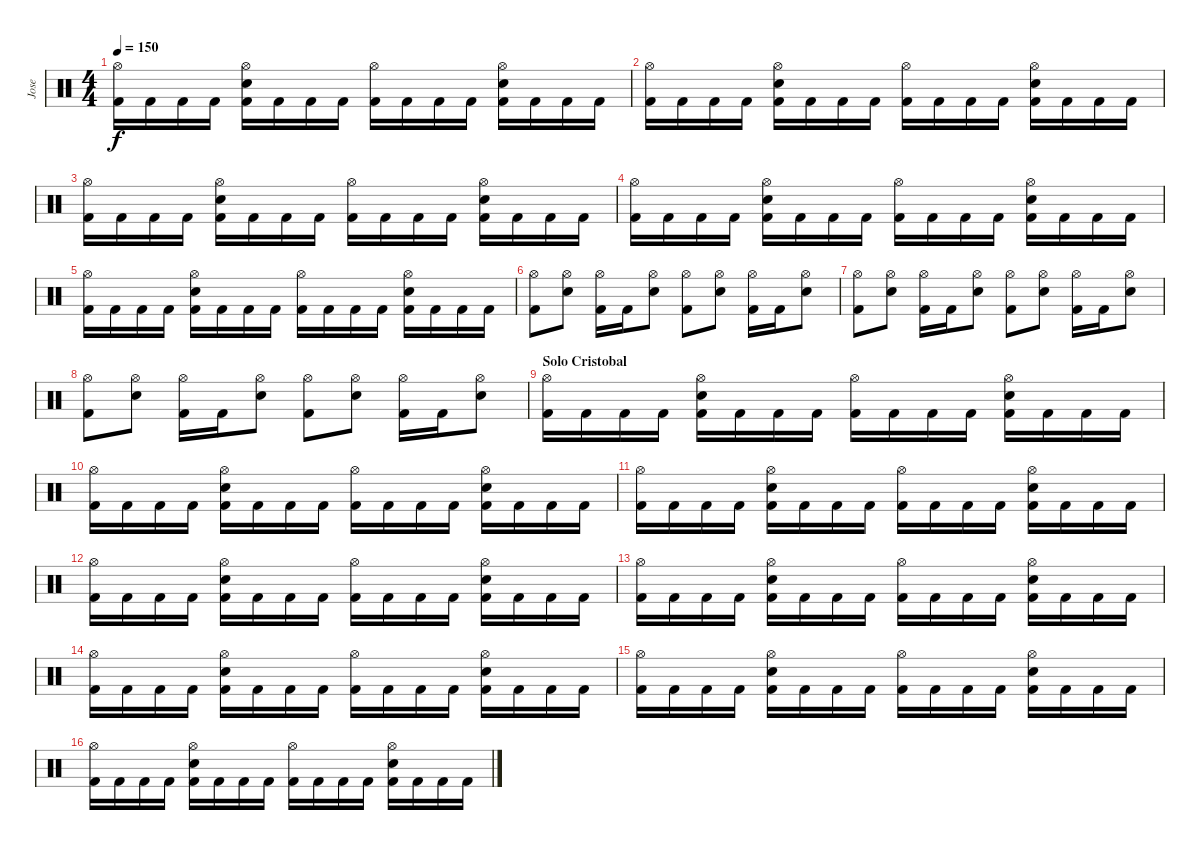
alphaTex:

\track ("Jose" "Jose") {instrument percussion}
\staff {score}
\articulation defaults
\ts (4 4)
\tempo 150
\clef neutral
\ks c
("Hi-Hat (open)" "Kick (hit) 2").16{dy f} "Kick (hit) 2".16 "Kick (hit) 2".16 "Kick (hit) 2".16 ("Kick (hit) 2" "Snare (hit) 2" "Hi-Hat (open)").16 "Kick (hit) 2".16 "Kick (hit) 2".16 "Kick (hit) 2".16 ("Kick (hit) 2" "Hi-Hat (open)").16 "Kick (hit) 2".16 "Kick (hit) 2".16 "Kick (hit) 2".16 ("Kick (hit) 2" "Snare (hit) 2" "Hi-Hat (open)").16 "Kick (hit) 2".16 "Kick (hit) 2".16 "Kick (hit) 2".16 |
("Hi-Hat (open)" "Kick (hit) 2").16 "Kick (hit) 2".16 "Kick (hit) 2".16 "Kick (hit) 2".16 ("Kick (hit) 2" "Snare (hit) 2" "Hi-Hat (open)").16 "Kick (hit) 2".16 "Kick (hit) 2".16 "Kick (hit) 2".16 ("Kick (hit) 2" "Hi-Hat (open)").16 "Kick (hit) 2".16 "Kick (hit) 2".16 "Kick (hit) 2".16 ("Kick (hit) 2" "Snare (hit) 2" "Hi-Hat (open)").16 "Kick (hit) 2".16 "Kick (hit) 2".16 "Kick (hit) 2".16 |
("Hi-Hat (open)" "Kick (hit) 2").16 "Kick (hit) 2".16 "Kick (hit) 2".16 "Kick (hit) 2".16 ("Kick (hit) 2" "Snare (hit) 2" "Hi-Hat (open)").16 "Kick (hit) 2".16 "Kick (hit) 2".16 "Kick (hit) 2".16 ("Kick (hit) 2" "Hi-Hat (open)").16 "Kick (hit) 2".16 "Kick (hit) 2".16 "Kick (hit) 2".16 ("Kick (hit) 2" "Snare (hit) 2" "Hi-Hat (open)").16 "Kick (hit) 2".16 "Kick (hit) 2".16 "Kick (hit) 2".16 |
("Hi-Hat (open)" "Kick (hit) 2").16 "Kick (hit) 2".16 "Kick (hit) 2".16 "Kick (hit) 2".16 ("Kick (hit) 2" "Snare (hit) 2" "Hi-Hat (open)").16 "Kick (hit) 2".16 "Kick (hit) 2".16 "Kick (hit) 2".16 ("Kick (hit) 2" "Hi-Hat (open)").16 "Kick (hit) 2".16 "Kick (hit) 2".16 "Kick (hit) 2".16 ("Kick (hit) 2" "Snare (hit) 2" "Hi-Hat (open)").16 "Kick (hit) 2".16 "Kick (hit) 2".16 "Kick (hit) 2".16 |
("Hi-Hat (open)" "Kick (hit) 2").16 "Kick (hit) 2".16 "Kick (hit) 2".16 "Kick (hit) 2".16 ("Kick (hit) 2" "Snare (hit) 2" "Hi-Hat (open)").16 "Kick (hit) 2".16 "Kick (hit) 2".16 "Kick (hit) 2".16 ("Kick (hit) 2" "Hi-Hat (open)").16 "Kick (hit) 2".16 "Kick (hit) 2".16 "Kick (hit) 2".16 ("Kick (hit) 2" "Snare (hit) 2" "Hi-Hat (open)").16 "Kick (hit) 2".16 "Kick (hit) 2".16 "Kick (hit) 2".16 |
("Hi-Hat (open)" "Kick (hit) 2").8 ("Hi-Hat (open)" "Snare (hit) 2").8 ("Hi-Hat (open)" "Kick (hit) 2").16 "Kick (hit) 2".16 ("Hi-Hat (open)" "Snare (hit) 2").8 ("Hi-Hat (open)" "Kick (hit) 2").8 ("Hi-Hat (open)" "Snare (hit) 2").8 ("Hi-Hat (open)" "Kick (hit) 2").16 "Kick (hit) 2".16 ("Hi-Hat (open)" "Snare (hit) 2").8 |
("Hi-Hat (open)" "Kick (hit) 2").8 ("Hi-Hat (open)" "Snare (hit) 2").8 ("Hi-Hat (open)" "Kick (hit) 2").16 "Kick (hit) 2".16 ("Hi-Hat (open)" "Snare (hit) 2").8 ("Hi-Hat (open)" "Kick (hit) 2").8 ("Hi-Hat (open)" "Snare (hit) 2").8 ("Hi-Hat (open)" "Kick (hit) 2").16 "Kick (hit) 2".16 ("Hi-Hat (open)" "Snare (hit) 2").8 |
("Hi-Hat (open)" "Kick (hit) 2").8 ("Hi-Hat (open)" "Snare (hit) 2").8 ("Hi-Hat (open)" "Kick (hit) 2").16 "Kick (hit) 2".16 ("Hi-Hat (open)" "Snare (hit) 2").8 ("Hi-Hat (open)" "Kick (hit) 2").8 ("Hi-Hat (open)" "Snare (hit) 2").8 ("Hi-Hat (open)" "Kick (hit) 2").16 "Kick (hit) 2".16 ("Hi-Hat (open)" "Snare (hit) 2").8 |
\section ("" "Solo Cristobal")
("Hi-Hat (open)" "Kick (hit) 2").16 "Kick (hit) 2".16 "Kick (hit) 2".16 "Kick (hit) 2".16 ("Kick (hit) 2" "Snare (hit) 2" "Hi-Hat (open)").16 "Kick (hit) 2".16 "Kick (hit) 2".16 "Kick (hit) 2".16 ("Kick (hit) 2" "Hi-Hat (open)").16 "Kick (hit) 2".16 "Kick (hit) 2".16 "Kick (hit) 2".16 ("Kick (hit) 2" "Snare (hit) 2" "Hi-Hat (open)").16 "Kick (hit) 2".16 "Kick (hit) 2".16 "Kick (hit) 2".16 |
("Hi-Hat (open)" "Kick (hit) 2").16 "Kick (hit) 2".16 "Kick (hit) 2".16 "Kick (hit) 2".16 ("Kick (hit) 2" "Snare (hit) 2" "Hi-Hat (open)").16 "Kick (hit) 2".16 "Kick (hit) 2".16 "Kick (hit) 2".16 ("Kick (hit) 2" "Hi-Hat (open)").16 "Kick (hit) 2".16 "Kick (hit) 2".16 "Kick (hit) 2".16 ("Kick (hit) 2" "Snare (hit) 2" "Hi-Hat (open)").16 "Kick (hit) 2".16 "Kick (hit) 2".16 "Kick (hit) 2".16 |
("Hi-Hat (open)" "Kick (hit) 2").16 "Kick (hit) 2".16 "Kick (hit) 2".16 "Kick (hit) 2".16 ("Kick (hit) 2" "Snare (hit) 2" "Hi-Hat (open)").16 "Kick (hit) 2".16 "Kick (hit) 2".16 "Kick (hit) 2".16 ("Kick (hit) 2" "Hi-Hat (open)").16 "Kick (hit) 2".16 "Kick (hit) 2".16 "Kick (hit) 2".16 ("Kick (hit) 2" "Snare (hit) 2" "Hi-Hat (open)").16 "Kick (hit) 2".16 "Kick (hit) 2".16 "Kick (hit) 2".16 |
("Hi-Hat (open)" "Kick (hit) 2").16 "Kick (hit) 2".16 "Kick (hit) 2".16 "Kick (hit) 2".16 ("Kick (hit) 2" "Snare (hit) 2" "Hi-Hat (open)").16 "Kick (hit) 2".16 "Kick (hit) 2".16 "Kick (hit) 2".16 ("Kick (hit) 2" "Hi-Hat (open)").16 "Kick (hit) 2".16 "Kick (hit) 2".16 "Kick (hit) 2".16 ("Kick (hit) 2" "Snare (hit) 2" "Hi-Hat (open)").16 "Kick (hit) 2".16 "Kick (hit) 2".16 "Kick (hit) 2".16 |
("Hi-Hat (open)" "Kick (hit) 2").16 "Kick (hit) 2".16 "Kick (hit) 2".16 "Kick (hit) 2".16 ("Kick (hit) 2" "Snare (hit) 2" "Hi-Hat (open)").16 "Kick (hit) 2".16 "Kick (hit) 2".16 "Kick (hit) 2".16 ("Kick (hit) 2" "Hi-Hat (open)").16 "Kick (hit) 2".16 "Kick (hit) 2".16 "Kick (hit) 2".16 ("Kick (hit) 2" "Snare (hit) 2" "Hi-Hat (open)").16 "Kick (hit) 2".16 "Kick (hit) 2".16 "Kick (hit) 2".16 |
("Hi-Hat (open)" "Kick (hit) 2").16 "Kick (hit) 2".16 "Kick (hit) 2".16 "Kick (hit) 2".16 ("Kick (hit) 2" "Snare (hit) 2" "Hi-Hat (open)").16 "Kick (hit) 2".16 "Kick (hit) 2".16 "Kick (hit) 2".16 ("Kick (hit) 2" "Hi-Hat (open)").16 "Kick (hit) 2".16 "Kick (hit) 2".16 "Kick (hit) 2".16 ("Kick (hit) 2" "Snare (hit) 2" "Hi-Hat (open)").16 "Kick (hit) 2".16 "Kick (hit) 2".16 "Kick (hit) 2".16 |
("Hi-Hat (open)" "Kick (hit) 2").16 "Kick (hit) 2".16 "Kick (hit) 2".16 "Kick (hit) 2".16 ("Kick (hit) 2" "Snare (hit) 2" "Hi-Hat (open)").16 "Kick (hit) 2".16 "Kick (hit) 2".16 "Kick (hit) 2".16 ("Kick (hit) 2" "Hi-Hat (open)").16 "Kick (hit) 2".16 "Kick (hit) 2".16 "Kick (hit) 2".16 ("Kick (hit) 2" "Snare (hit) 2" "Hi-Hat (open)").16 "Kick (hit) 2".16 "Kick (hit) 2".16 "Kick (hit) 2".16 |
("Hi-Hat (open)" "Kick (hit) 2").16 "Kick (hit) 2".16 "Kick (hit) 2".16 "Kick (hit) 2".16 ("Kick (hit) 2" "Snare (hit) 2" "Hi-Hat (open)").16 "Kick (hit) 2".16 "Kick (hit) 2".16 "Kick (hit) 2".16 ("Kick (hit) 2" "Hi-Hat (open)").16 "Kick (hit) 2".16 "Kick (hit) 2".16 "Kick (hit) 2".16 ("Kick (hit) 2" "Snare (hit) 2" "Hi-Hat (open)").16 "Kick (hit) 2".16 "Kick (hit) 2".16 "Kick (hit) 2".16
